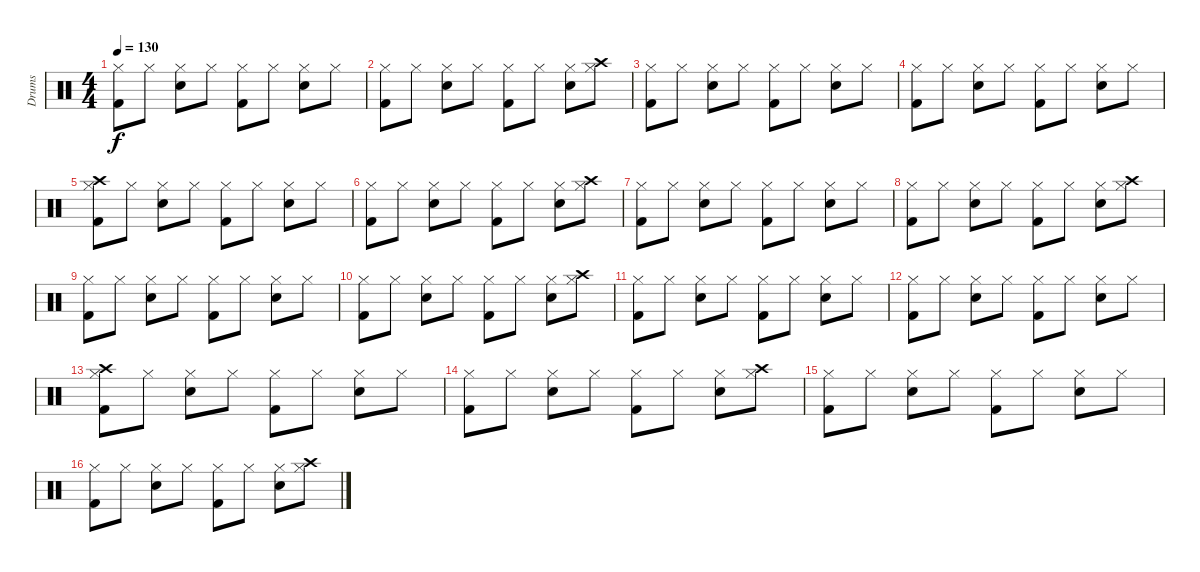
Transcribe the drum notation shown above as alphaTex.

\track ("Drums" "Drums") {instrument percussion}
\staff {score}
\articulation defaults
\ts (4 4)
\tempo 130
\clef neutral
\ks c
("Kick (hit) 2" "Hi-Hat (closed)").8{dy f} "Hi-Hat (closed)".8 ("Snare (hit) 2" "Hi-Hat (closed)").8 "Hi-Hat (closed)".8 ("Kick (hit) 2" "Hi-Hat (closed)").8 "Hi-Hat (closed)".8 ("Snare (hit) 2" "Hi-Hat (closed)").8 "Hi-Hat (closed)".8 |
("Kick (hit) 2" "Hi-Hat (closed)").8 "Hi-Hat (closed)".8 ("Snare (hit) 2" "Hi-Hat (closed)").8 "Hi-Hat (closed)".8 ("Kick (hit) 2" "Hi-Hat (closed)").8 "Hi-Hat (closed)".8 ("Snare (hit) 2" "Hi-Hat (closed)").8 ("Hi-Hat (closed)" "Crash high (hit)").8 |
("Kick (hit) 2" "Hi-Hat (closed)").8 "Hi-Hat (closed)".8 ("Snare (hit) 2" "Hi-Hat (closed)").8 "Hi-Hat (closed)".8 ("Kick (hit) 2" "Hi-Hat (closed)").8 "Hi-Hat (closed)".8 ("Snare (hit) 2" "Hi-Hat (closed)").8 "Hi-Hat (closed)".8 |
("Kick (hit) 2" "Hi-Hat (closed)").8 "Hi-Hat (closed)".8 ("Snare (hit) 2" "Hi-Hat (closed)").8 "Hi-Hat (closed)".8 ("Kick (hit) 2" "Hi-Hat (closed)").8 "Hi-Hat (closed)".8 ("Snare (hit) 2" "Hi-Hat (closed)").8 "Hi-Hat (closed)".8 |
("Kick (hit) 2" "Hi-Hat (closed)" "Crash high (hit)").8 "Hi-Hat (closed)".8 ("Snare (hit) 2" "Hi-Hat (closed)").8 "Hi-Hat (closed)".8 ("Kick (hit) 2" "Hi-Hat (closed)").8 "Hi-Hat (closed)".8 ("Snare (hit) 2" "Hi-Hat (closed)").8 "Hi-Hat (closed)".8 |
("Kick (hit) 2" "Hi-Hat (closed)").8 "Hi-Hat (closed)".8 ("Snare (hit) 2" "Hi-Hat (closed)").8 "Hi-Hat (closed)".8 ("Kick (hit) 2" "Hi-Hat (closed)").8 "Hi-Hat (closed)".8 ("Snare (hit) 2" "Hi-Hat (closed)").8 ("Hi-Hat (closed)" "Crash high (hit)").8 |
("Kick (hit) 2" "Hi-Hat (closed)").8 "Hi-Hat (closed)".8 ("Snare (hit) 2" "Hi-Hat (closed)").8 "Hi-Hat (closed)".8 ("Kick (hit) 2" "Hi-Hat (closed)").8 "Hi-Hat (closed)".8 ("Snare (hit) 2" "Hi-Hat (closed)").8 "Hi-Hat (closed)".8 |
("Kick (hit) 2" "Hi-Hat (closed)").8 "Hi-Hat (closed)".8 ("Snare (hit) 2" "Hi-Hat (closed)").8 "Hi-Hat (closed)".8 ("Kick (hit) 2" "Hi-Hat (closed)").8 "Hi-Hat (closed)".8 ("Snare (hit) 2" "Hi-Hat (closed)").8 ("Hi-Hat (closed)" "Crash high (hit)").8 |
("Kick (hit) 2" "Hi-Hat (closed)").8 "Hi-Hat (closed)".8 ("Snare (hit) 2" "Hi-Hat (closed)").8 "Hi-Hat (closed)".8 ("Kick (hit) 2" "Hi-Hat (closed)").8 "Hi-Hat (closed)".8 ("Snare (hit) 2" "Hi-Hat (closed)").8 "Hi-Hat (closed)".8 |
("Kick (hit) 2" "Hi-Hat (closed)").8 "Hi-Hat (closed)".8 ("Snare (hit) 2" "Hi-Hat (closed)").8 "Hi-Hat (closed)".8 ("Kick (hit) 2" "Hi-Hat (closed)").8 "Hi-Hat (closed)".8 ("Snare (hit) 2" "Hi-Hat (closed)").8 ("Hi-Hat (closed)" "Crash high (hit)").8 |
("Kick (hit) 2" "Hi-Hat (closed)").8 "Hi-Hat (closed)".8 ("Snare (hit) 2" "Hi-Hat (closed)").8 "Hi-Hat (closed)".8 ("Kick (hit) 2" "Hi-Hat (closed)").8 "Hi-Hat (closed)".8 ("Snare (hit) 2" "Hi-Hat (closed)").8 "Hi-Hat (closed)".8 |
("Kick (hit) 2" "Hi-Hat (closed)").8 "Hi-Hat (closed)".8 ("Snare (hit) 2" "Hi-Hat (closed)").8 "Hi-Hat (closed)".8 ("Kick (hit) 2" "Hi-Hat (closed)").8 "Hi-Hat (closed)".8 ("Snare (hit) 2" "Hi-Hat (closed)").8 "Hi-Hat (closed)".8 |
("Kick (hit) 2" "Hi-Hat (closed)" "Crash high (hit)").8 "Hi-Hat (closed)".8 ("Snare (hit) 2" "Hi-Hat (closed)").8 "Hi-Hat (closed)".8 ("Kick (hit) 2" "Hi-Hat (closed)").8 "Hi-Hat (closed)".8 ("Snare (hit) 2" "Hi-Hat (closed)").8 "Hi-Hat (closed)".8 |
("Kick (hit) 2" "Hi-Hat (closed)").8 "Hi-Hat (closed)".8 ("Snare (hit) 2" "Hi-Hat (closed)").8 "Hi-Hat (closed)".8 ("Kick (hit) 2" "Hi-Hat (closed)").8 "Hi-Hat (closed)".8 ("Snare (hit) 2" "Hi-Hat (closed)").8 ("Hi-Hat (closed)" "Crash high (hit)").8 |
("Kick (hit) 2" "Hi-Hat (closed)").8 "Hi-Hat (closed)".8 ("Snare (hit) 2" "Hi-Hat (closed)").8 "Hi-Hat (closed)".8 ("Kick (hit) 2" "Hi-Hat (closed)").8 "Hi-Hat (closed)".8 ("Snare (hit) 2" "Hi-Hat (closed)").8 "Hi-Hat (closed)".8 |
("Kick (hit) 2" "Hi-Hat (closed)").8 "Hi-Hat (closed)".8 ("Snare (hit) 2" "Hi-Hat (closed)").8 "Hi-Hat (closed)".8 ("Kick (hit) 2" "Hi-Hat (closed)").8 "Hi-Hat (closed)".8 ("Snare (hit) 2" "Hi-Hat (closed)").8 ("Hi-Hat (closed)" "Crash high (hit)").8
